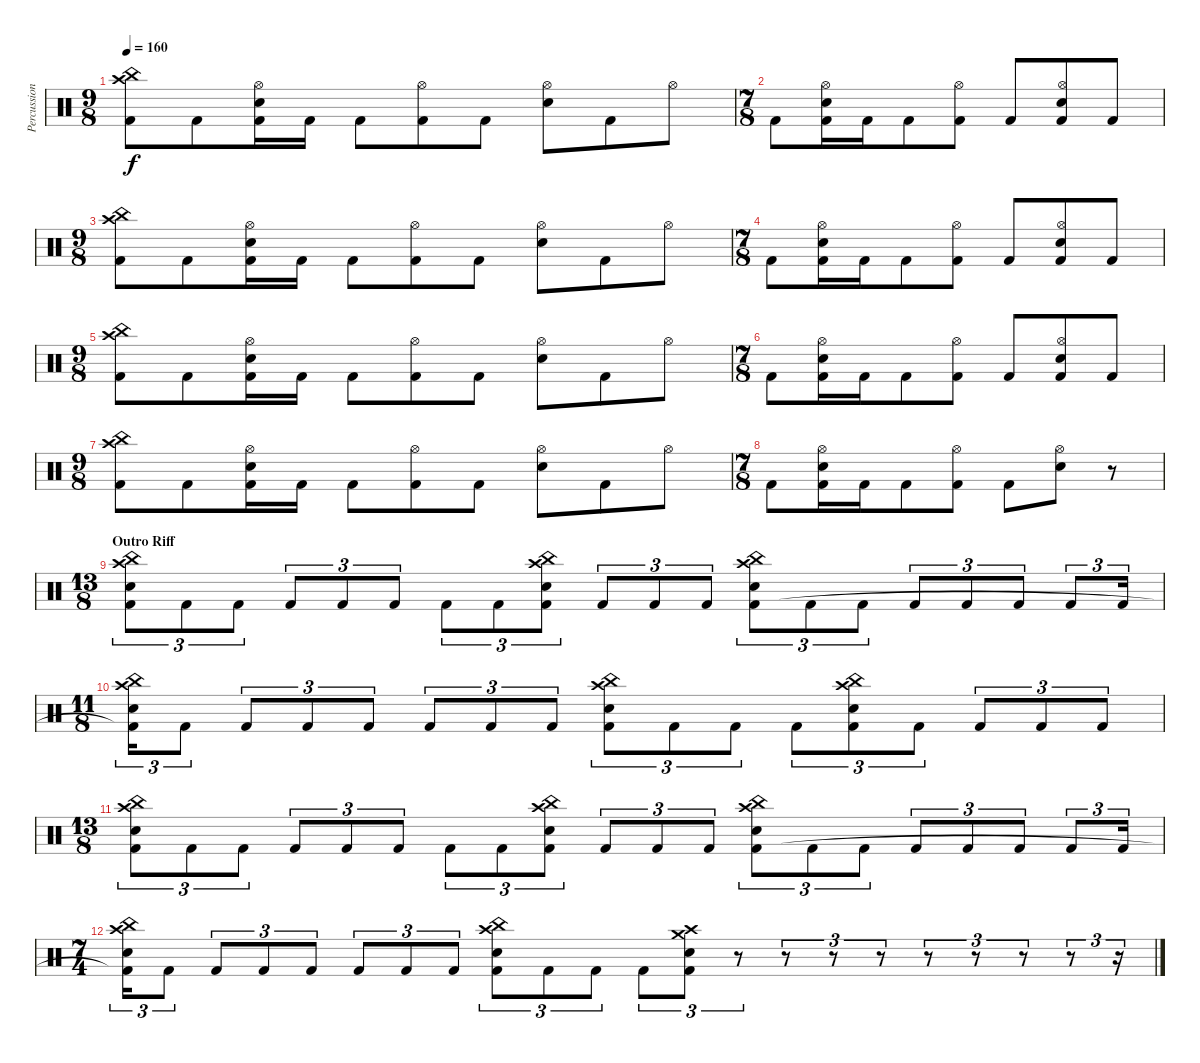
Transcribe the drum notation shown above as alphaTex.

\track ("Percussion" "Percussion") {instrument percussion}
\staff {score}
\articulation defaults
\ts (9 8)
\tempo 160
\clef neutral
\ks c
("China (hit)" "Crash high (hit)" "Kick (hit) 2").8{dy f} "Kick (hit) 2".8 ("Hi-Hat (open)" "Electric Snare (hit)" "Kick (hit) 2").16 "Kick (hit) 2".16 "Kick (hit) 2".8 ("Hi-Hat (open)" "Kick (hit) 2").8 "Kick (hit) 2".8 ("Hi-Hat (open)" "Electric Snare (hit)").8 "Kick (hit) 2".8 "Hi-Hat (open)".8 |
\ts (7 8)
"Kick (hit) 2".8 ("Hi-Hat (open)" "Electric Snare (hit)" "Kick (hit) 2").16 "Kick (hit) 2".16 "Kick (hit) 2".8 ("Hi-Hat (open)" "Kick (hit) 2").8 "Kick (hit) 2".8 ("Hi-Hat (open)" "Electric Snare (hit)" "Kick (hit) 2").8 "Kick (hit) 2".8 |
\ts (9 8)
("China (hit)" "Crash high (hit)" "Kick (hit) 2").8 "Kick (hit) 2".8 ("Hi-Hat (open)" "Electric Snare (hit)" "Kick (hit) 2").16 "Kick (hit) 2".16 "Kick (hit) 2".8 ("Hi-Hat (open)" "Kick (hit) 2").8 "Kick (hit) 2".8 ("Hi-Hat (open)" "Electric Snare (hit)").8 "Kick (hit) 2".8 "Hi-Hat (open)".8 |
\ts (7 8)
"Kick (hit) 2".8 ("Hi-Hat (open)" "Electric Snare (hit)" "Kick (hit) 2").16 "Kick (hit) 2".16 "Kick (hit) 2".8 ("Hi-Hat (open)" "Kick (hit) 2").8 "Kick (hit) 2".8 ("Hi-Hat (open)" "Electric Snare (hit)" "Kick (hit) 2").8 "Kick (hit) 2".8 |
\ts (9 8)
("China (hit)" "Crash high (hit)" "Kick (hit) 2").8 "Kick (hit) 2".8 ("Hi-Hat (open)" "Electric Snare (hit)" "Kick (hit) 2").16 "Kick (hit) 2".16 "Kick (hit) 2".8 ("Hi-Hat (open)" "Kick (hit) 2").8 "Kick (hit) 2".8 ("Hi-Hat (open)" "Electric Snare (hit)").8 "Kick (hit) 2".8 "Hi-Hat (open)".8 |
\ts (7 8)
"Kick (hit) 2".8 ("Hi-Hat (open)" "Electric Snare (hit)" "Kick (hit) 2").16 "Kick (hit) 2".16 "Kick (hit) 2".8 ("Hi-Hat (open)" "Kick (hit) 2").8 "Kick (hit) 2".8 ("Hi-Hat (open)" "Electric Snare (hit)" "Kick (hit) 2").8 "Kick (hit) 2".8 |
\ts (9 8)
("China (hit)" "Crash high (hit)" "Kick (hit) 2").8 "Kick (hit) 2".8 ("Hi-Hat (open)" "Electric Snare (hit)" "Kick (hit) 2").16 "Kick (hit) 2".16 "Kick (hit) 2".8 ("Hi-Hat (open)" "Kick (hit) 2").8 "Kick (hit) 2".8 ("Hi-Hat (open)" "Electric Snare (hit)").8 "Kick (hit) 2".8 "Hi-Hat (open)".8 |
\ts (7 8)
"Kick (hit) 2".8 ("Hi-Hat (open)" "Electric Snare (hit)" "Kick (hit) 2").16 "Kick (hit) 2".16 "Kick (hit) 2".8 ("Hi-Hat (open)" "Kick (hit) 2").8 "Kick (hit) 2".8 ("Hi-Hat (open)" "Electric Snare (hit)").8 r.8 |
\ts (13 8)
\section ("" "Outro Riff")
("China (hit)" "Crash high (hit)" "Electric Snare (hit)" "Kick (hit) 2").8{tu (3 2)} "Kick (hit) 2".8{tu (3 2)} "Kick (hit) 2".8{tu (3 2)} "Kick (hit) 2".8{tu (3 2)} "Kick (hit) 2".8{tu (3 2)} "Kick (hit) 2".8{tu (3 2)} "Kick (hit) 2".8{tu (3 2)} "Kick (hit) 2".8{tu (3 2)} ("China (hit)" "Crash high (hit)" "Electric Snare (hit)" "Kick (hit) 2").8{tu (3 2)} "Kick (hit) 2".8{tu (3 2)} "Kick (hit) 2".8{tu (3 2)} "Kick (hit) 2".8{tu (3 2)} ("China (hit)" "Crash high (hit)" "Electric Snare (hit)" "Kick (hit) 2").8{tu (3 2)} "Kick (hit) 2".8{tu (3 2)} "Kick (hit) 2".8{tu (3 2)} "Kick (hit) 2".8{tu (3 2)} "Kick (hit) 2".8{tu (3 2)} "Kick (hit) 2".8{tu (3 2)} "Kick (hit) 2".8{tu (3 2)} "Kick (hit) 2".16{tu (3 2)} |
\ts (11 8)
("China (hit)" "Crash high (hit)" "Electric Snare (hit)" "Kick (hit) 2"{t}).16{tu (3 2)} "Kick (hit) 2".8{tu (3 2)} "Kick (hit) 2".8{tu (3 2)} "Kick (hit) 2".8{tu (3 2)} "Kick (hit) 2".8{tu (3 2)} "Kick (hit) 2".8{tu (3 2)} "Kick (hit) 2".8{tu (3 2)} "Kick (hit) 2".8{tu (3 2)} ("China (hit)" "Crash high (hit)" "Electric Snare (hit)" "Kick (hit) 2").8{tu (3 2)} "Kick (hit) 2".8{tu (3 2)} "Kick (hit) 2".8{tu (3 2)} "Kick (hit) 2".8{tu (3 2)} ("China (hit)" "Crash high (hit)" "Electric Snare (hit)" "Kick (hit) 2").8{tu (3 2)} "Kick (hit) 2".8{tu (3 2)} "Kick (hit) 2".8{tu (3 2)} "Kick (hit) 2".8{tu (3 2)} "Kick (hit) 2".8{tu (3 2)} |
\ts (13 8)
("China (hit)" "Crash high (hit)" "Electric Snare (hit)" "Kick (hit) 2").8{tu (3 2)} "Kick (hit) 2".8{tu (3 2)} "Kick (hit) 2".8{tu (3 2)} "Kick (hit) 2".8{tu (3 2)} "Kick (hit) 2".8{tu (3 2)} "Kick (hit) 2".8{tu (3 2)} "Kick (hit) 2".8{tu (3 2)} "Kick (hit) 2".8{tu (3 2)} ("China (hit)" "Crash high (hit)" "Electric Snare (hit)" "Kick (hit) 2").8{tu (3 2)} "Kick (hit) 2".8{tu (3 2)} "Kick (hit) 2".8{tu (3 2)} "Kick (hit) 2".8{tu (3 2)} ("China (hit)" "Crash high (hit)" "Electric Snare (hit)" "Kick (hit) 2").8{tu (3 2)} "Kick (hit) 2".8{tu (3 2)} "Kick (hit) 2".8{tu (3 2)} "Kick (hit) 2".8{tu (3 2)} "Kick (hit) 2".8{tu (3 2)} "Kick (hit) 2".8{tu (3 2)} "Kick (hit) 2".8{tu (3 2)} "Kick (hit) 2".16{tu (3 2)} |
\ts (7 4)
("China (hit)" "Crash high (hit)" "Electric Snare (hit)" "Kick (hit) 2"{t}).16{tu (3 2)} "Kick (hit) 2".8{tu (3 2)} "Kick (hit) 2".8{tu (3 2)} "Kick (hit) 2".8{tu (3 2)} "Kick (hit) 2".8{tu (3 2)} "Kick (hit) 2".8{tu (3 2)} "Kick (hit) 2".8{tu (3 2)} "Kick (hit) 2".8{tu (3 2)} ("China (hit)" "Crash high (hit)" "Electric Snare (hit)" "Kick (hit) 2").8{tu (3 2)} "Kick (hit) 2".8{tu (3 2)} "Kick (hit) 2".8{tu (3 2)} "Kick (hit) 2".8{tu (3 2)} ("Crash medium (hit)" "Crash high (hit)" "Electric Snare (hit)" "Kick (hit) 2").8{tu (3 2)} r.8{tu (3 2)} r.8{tu (3 2)} r.8{tu (3 2)} r.8{tu (3 2)} r.8{tu (3 2)} r.8{tu (3 2)} r.8{tu (3 2)} r.8{tu (3 2)} r.16{tu (3 2)}
